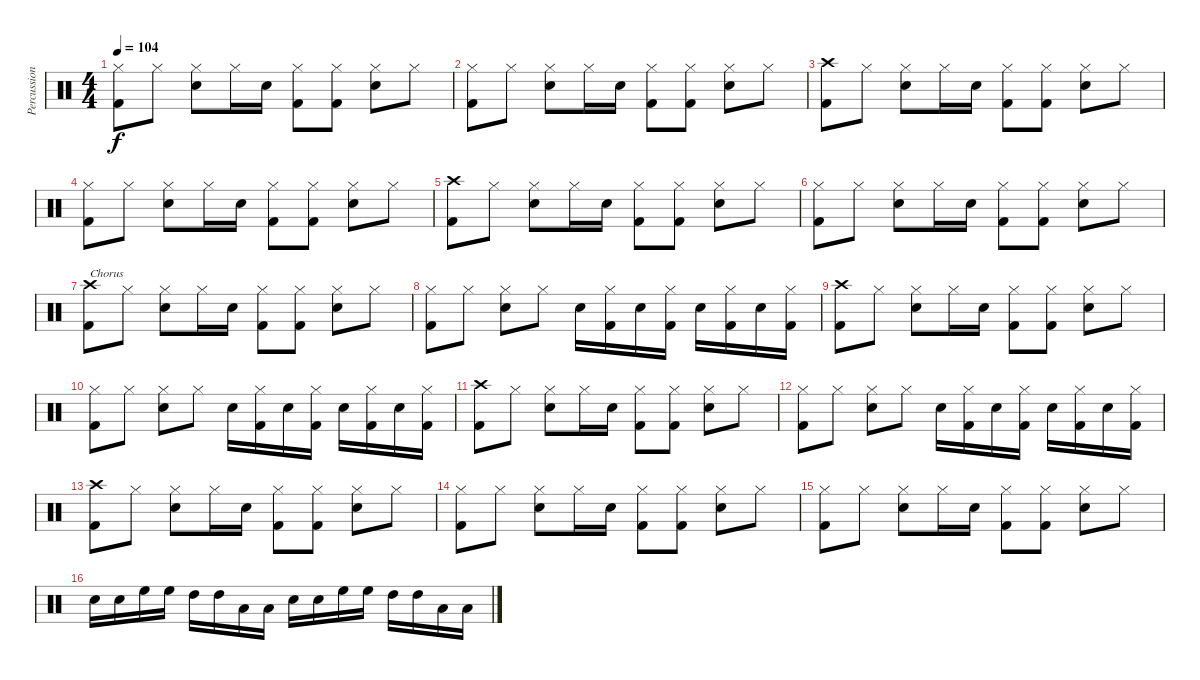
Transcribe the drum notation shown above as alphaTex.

\track ("Percussion" "Percussion") {instrument percussion}
\staff {score}
\articulation defaults
\ts (4 4)
\tempo 104
\clef neutral
\ks c
("Hi-Hat (closed)" "Kick (hit) 2").8{dy f} "Hi-Hat (closed)".8 ("Hi-Hat (closed)" "Snare (hit) 2").8 "Hi-Hat (closed)".16 "Snare (hit) 2".16 ("Hi-Hat (closed)" "Kick (hit) 2").8 ("Hi-Hat (closed)" "Kick (hit) 2").8 ("Hi-Hat (closed)" "Snare (hit) 2").8 "Hi-Hat (closed)".8 |
("Hi-Hat (closed)" "Kick (hit) 2").8 "Hi-Hat (closed)".8 ("Hi-Hat (closed)" "Snare (hit) 2").8 "Hi-Hat (closed)".16 "Snare (hit) 2".16 ("Hi-Hat (closed)" "Kick (hit) 2").8 ("Hi-Hat (closed)" "Kick (hit) 2").8 ("Hi-Hat (closed)" "Snare (hit) 2").8 "Hi-Hat (closed)".8 |
("Crash high (hit)" "Kick (hit) 2").8 "Hi-Hat (closed)".8 ("Hi-Hat (closed)" "Snare (hit) 2").8 "Hi-Hat (closed)".16 "Snare (hit) 2".16 ("Hi-Hat (closed)" "Kick (hit) 2").8 ("Hi-Hat (closed)" "Kick (hit) 2").8 ("Hi-Hat (closed)" "Snare (hit) 2").8 "Hi-Hat (closed)".8 |
("Hi-Hat (closed)" "Kick (hit) 2").8 "Hi-Hat (closed)".8 ("Hi-Hat (closed)" "Snare (hit) 2").8 "Hi-Hat (closed)".16 "Snare (hit) 2".16 ("Hi-Hat (closed)" "Kick (hit) 2").8 ("Hi-Hat (closed)" "Kick (hit) 2").8 ("Hi-Hat (closed)" "Snare (hit) 2").8 "Hi-Hat (closed)".8 |
("Crash high (hit)" "Kick (hit) 2").8 "Hi-Hat (closed)".8 ("Hi-Hat (closed)" "Snare (hit) 2").8 "Hi-Hat (closed)".16 "Snare (hit) 2".16 ("Hi-Hat (closed)" "Kick (hit) 2").8 ("Hi-Hat (closed)" "Kick (hit) 2").8 ("Hi-Hat (closed)" "Snare (hit) 2").8 "Hi-Hat (closed)".8 |
("Hi-Hat (closed)" "Kick (hit) 2").8 "Hi-Hat (closed)".8 ("Hi-Hat (closed)" "Snare (hit) 2").8 "Hi-Hat (closed)".16 "Snare (hit) 2".16 ("Hi-Hat (closed)" "Kick (hit) 2").8 ("Hi-Hat (closed)" "Kick (hit) 2").8 ("Hi-Hat (closed)" "Snare (hit) 2").8 "Hi-Hat (closed)".8 |
("Crash high (hit)" "Kick (hit) 2").8{txt "Chorus"} "Hi-Hat (closed)".8 ("Hi-Hat (closed)" "Snare (hit) 2").8 "Hi-Hat (closed)".16 "Snare (hit) 2".16 ("Hi-Hat (closed)" "Kick (hit) 2").8 ("Hi-Hat (closed)" "Kick (hit) 2").8 ("Hi-Hat (closed)" "Snare (hit) 2").8 "Hi-Hat (closed)".8 |
("Hi-Hat (closed)" "Kick (hit) 2").8 "Hi-Hat (closed)".8 ("Hi-Hat (closed)" "Snare (hit) 2").8 "Hi-Hat (closed)".8 "Snare (hit) 2".16 ("Hi-Hat (closed)" "Kick (hit) 2").16 "Snare (hit) 2".16 ("Hi-Hat (closed)" "Kick (hit) 2").16 "Snare (hit) 2".16 ("Hi-Hat (closed)" "Kick (hit) 2").16 "Snare (hit) 2".16 ("Hi-Hat (closed)" "Kick (hit) 2").16 |
("Crash high (hit)" "Kick (hit) 2").8 "Hi-Hat (closed)".8 ("Hi-Hat (closed)" "Snare (hit) 2").8 "Hi-Hat (closed)".16 "Snare (hit) 2".16 ("Hi-Hat (closed)" "Kick (hit) 2").8 ("Hi-Hat (closed)" "Kick (hit) 2").8 ("Hi-Hat (closed)" "Snare (hit) 2").8 "Hi-Hat (closed)".8 |
("Hi-Hat (closed)" "Kick (hit) 2").8 "Hi-Hat (closed)".8 ("Hi-Hat (closed)" "Snare (hit) 2").8 "Hi-Hat (closed)".8 "Snare (hit) 2".16 ("Hi-Hat (closed)" "Kick (hit) 2").16 "Snare (hit) 2".16 ("Hi-Hat (closed)" "Kick (hit) 2").16 "Snare (hit) 2".16 ("Hi-Hat (closed)" "Kick (hit) 2").16 "Snare (hit) 2".16 ("Hi-Hat (closed)" "Kick (hit) 2").16 |
("Crash high (hit)" "Kick (hit) 2").8 "Hi-Hat (closed)".8 ("Hi-Hat (closed)" "Snare (hit) 2").8 "Hi-Hat (closed)".16 "Snare (hit) 2".16 ("Hi-Hat (closed)" "Kick (hit) 2").8 ("Hi-Hat (closed)" "Kick (hit) 2").8 ("Hi-Hat (closed)" "Snare (hit) 2").8 "Hi-Hat (closed)".8 |
("Hi-Hat (closed)" "Kick (hit) 2").8 "Hi-Hat (closed)".8 ("Hi-Hat (closed)" "Snare (hit) 2").8 "Hi-Hat (closed)".8 "Snare (hit) 2".16 ("Hi-Hat (closed)" "Kick (hit) 2").16 "Snare (hit) 2".16 ("Hi-Hat (closed)" "Kick (hit) 2").16 "Snare (hit) 2".16 ("Hi-Hat (closed)" "Kick (hit) 2").16 "Snare (hit) 2".16 ("Hi-Hat (closed)" "Kick (hit) 2").16 |
("Crash high (hit)" "Kick (hit) 2").8 "Hi-Hat (closed)".8 ("Hi-Hat (closed)" "Snare (hit) 2").8 "Hi-Hat (closed)".16 "Snare (hit) 2".16 ("Hi-Hat (closed)" "Kick (hit) 2").8 ("Hi-Hat (closed)" "Kick (hit) 2").8 ("Hi-Hat (closed)" "Snare (hit) 2").8 "Hi-Hat (closed)".8 |
("Hi-Hat (closed)" "Kick (hit) 2").8 "Hi-Hat (closed)".8 ("Hi-Hat (closed)" "Snare (hit) 2").8 "Hi-Hat (closed)".16 "Snare (hit) 2".16 ("Hi-Hat (closed)" "Kick (hit) 2").8 ("Hi-Hat (closed)" "Kick (hit) 2").8 ("Hi-Hat (closed)" "Snare (hit) 2").8 "Hi-Hat (closed)".8 |
("Hi-Hat (closed)" "Kick (hit) 2").8 "Hi-Hat (closed)".8 ("Hi-Hat (closed)" "Snare (hit) 2").8 "Hi-Hat (closed)".16 "Snare (hit) 2".16 ("Hi-Hat (closed)" "Kick (hit) 2").8 ("Hi-Hat (closed)" "Kick (hit) 2").8 ("Hi-Hat (closed)" "Snare (hit) 2").8 "Hi-Hat (closed)".8 |
"Snare (hit) 2".16 "Snare (hit) 2".16 "High Floor Tom (hit)".16 "High Floor Tom (hit)".16 "High Tom (hit)".16 "High Tom (hit)".16 "Low Tom (hit)".16 "Low Tom (hit)".16 "Snare (hit) 2".16 "Snare (hit) 2".16 "High Floor Tom (hit)".16 "High Floor Tom (hit)".16 "High Tom (hit)".16 "High Tom (hit)".16 "Low Tom (hit)".16 "Low Tom (hit)".16
